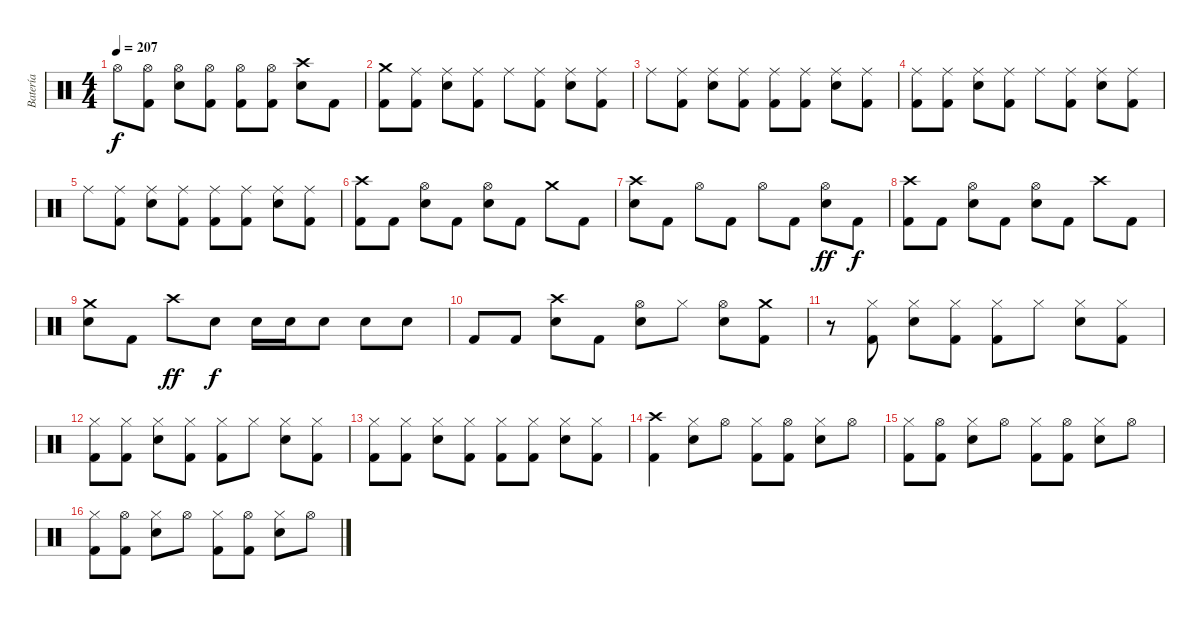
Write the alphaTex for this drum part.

\track ("Batería" "Batería") {instrument percussion}
\staff {score}
\articulation defaults
\ts (4 4)
\tempo 207
\clef neutral
\ks c "Hi-Hat (open)".8{dy f}
("Hi-Hat (open)" "Kick (hit) 2").8 ("Snare (hit) 2" "Hi-Hat (open)").8 ("Hi-Hat (open)" "Kick (hit) 2").8 ("Hi-Hat (open)" "Kick (hit) 2").8 ("Hi-Hat (open)" "Kick (hit) 2").8 ("Crash high (hit)" "Snare (hit) 2").8 "Kick (hit) 2".8 |
("Crash medium (hit)" "Kick (hit) 2").8 ("Ride (middle)" "Kick (hit) 2").8 ("Snare (hit) 2" "Ride (middle)").8 ("Ride (middle)" "Kick (hit) 2").8 "Ride (middle)".8 ("Ride (middle)" "Kick (hit) 2").8 ("Snare (hit) 2" "Ride (middle)").8 ("Ride (middle)" "Kick (hit) 2").8 |
"Ride (middle)".8 ("Ride (middle)" "Kick (hit) 2").8 ("Snare (hit) 2" "Ride (middle)").8 ("Ride (middle)" "Kick (hit) 2").8 ("Ride (middle)" "Kick (hit) 2").8 ("Ride (middle)" "Kick (hit) 2").8 ("Snare (hit) 2" "Ride (middle)").8 ("Ride (middle)" "Kick (hit) 2").8 |
("Ride (middle)" "Kick (hit) 2").8 ("Ride (middle)" "Kick (hit) 2").8 ("Snare (hit) 2" "Ride (middle)").8 ("Ride (middle)" "Kick (hit) 2").8 "Ride (middle)".8 ("Ride (middle)" "Kick (hit) 2").8 ("Snare (hit) 2" "Ride (middle)").8 ("Ride (middle)" "Kick (hit) 2").8 |
"Ride (middle)".8 ("Ride (middle)" "Kick (hit) 2").8 ("Snare (hit) 2" "Ride (middle)").8 ("Ride (middle)" "Kick (hit) 2").8 ("Ride (middle)" "Kick (hit) 2").8 ("Ride (middle)" "Kick (hit) 2").8 ("Snare (hit) 2" "Ride (middle)").8 ("Ride (middle)" "Kick (hit) 2").8 |
("Crash high (hit)" "Kick (hit) 2").8 "Kick (hit) 2".8 ("Snare (hit) 2" "Hi-Hat (open)").8 "Kick (hit) 2".8 ("Snare (hit) 2" "Hi-Hat (open)").8 "Kick (hit) 2".8 "Crash medium (hit)".8 "Kick (hit) 2".8 |
("Crash high (hit)" "Snare (hit) 2").8 "Kick (hit) 2".8 "Hi-Hat (open)".8 "Kick (hit) 2".8 "Hi-Hat (open)".8 "Kick (hit) 2".8 ("Snare (hit) 2" "Hi-Hat (open)").8{dy ff} "Kick (hit) 2".8{dy f} |
("Crash high (hit)" "Kick (hit) 2").8 "Kick (hit) 2".8 ("Snare (hit) 2" "Hi-Hat (open)").8 "Kick (hit) 2".8 ("Snare (hit) 2" "Hi-Hat (open)").8 "Kick (hit) 2".8 "Crash high (hit)".8 "Kick (hit) 2".8 |
("Crash medium (hit)" "Snare (hit) 2").8 "Kick (hit) 2".8 "Crash high (hit)".8{dy ff} "Snare (hit) 2".8{dy f} "Snare (hit) 2".16 "Snare (hit) 2".16 "Snare (hit) 2".8 "Snare (hit) 2".8 "Snare (hit) 2".8 |
"Kick (hit) 2".8 "Kick (hit) 2".8 ("Crash high (hit)" "Snare (hit) 2").8 "Kick (hit) 2".8 ("Snare (hit) 2" "Hi-Hat (open)").8 "Hi-Hat (closed)".8 ("Snare (hit) 2" "Hi-Hat (open)").8 ("Crash medium (hit)" "Kick (hit) 2").8 |
r.8 ("Hi-Hat (closed)" "Kick (hit) 2").8 ("Snare (hit) 2" "Hi-Hat (closed)").8 ("Hi-Hat (closed)" "Kick (hit) 2").8 ("Hi-Hat (closed)" "Kick (hit) 2").8 "Hi-Hat (closed)".8 ("Snare (hit) 2" "Hi-Hat (closed)").8 ("Hi-Hat (closed)" "Kick (hit) 2").8 |
("Hi-Hat (closed)" "Kick (hit) 2").8 ("Hi-Hat (closed)" "Kick (hit) 2").8 ("Snare (hit) 2" "Hi-Hat (closed)").8 ("Hi-Hat (closed)" "Kick (hit) 2").8 ("Hi-Hat (closed)" "Kick (hit) 2").8 "Hi-Hat (closed)".8 ("Snare (hit) 2" "Hi-Hat (closed)").8 ("Hi-Hat (closed)" "Kick (hit) 2").8 |
("Hi-Hat (closed)" "Kick (hit) 2").8 ("Hi-Hat (closed)" "Kick (hit) 2").8 ("Snare (hit) 2" "Hi-Hat (closed)").8 ("Hi-Hat (closed)" "Kick (hit) 2").8 ("Hi-Hat (closed)" "Kick (hit) 2").8 ("Hi-Hat (closed)" "Kick (hit) 2").8 ("Snare (hit) 2" "Hi-Hat (closed)").8 ("Hi-Hat (closed)" "Kick (hit) 2").8 |
("Crash high (hit)" "Kick (hit) 2").4 ("Snare (hit) 2" "Hi-Hat (closed)").8 "Hi-Hat (open)".8 ("Hi-Hat (closed)" "Kick (hit) 2").8 ("Hi-Hat (open)" "Kick (hit) 2").8 ("Snare (hit) 2" "Hi-Hat (closed)").8 "Hi-Hat (open)".8 |
("Hi-Hat (closed)" "Kick (hit) 2").8 ("Hi-Hat (open)" "Kick (hit) 2").8 ("Snare (hit) 2" "Hi-Hat (closed)").8 "Hi-Hat (open)".8 ("Hi-Hat (closed)" "Kick (hit) 2").8 ("Hi-Hat (open)" "Kick (hit) 2").8 ("Snare (hit) 2" "Hi-Hat (closed)").8 "Hi-Hat (open)".8 |
("Hi-Hat (closed)" "Kick (hit) 2").8 ("Hi-Hat (open)" "Kick (hit) 2").8 ("Snare (hit) 2" "Hi-Hat (closed)").8 "Hi-Hat (open)".8 ("Hi-Hat (closed)" "Kick (hit) 2").8 ("Hi-Hat (open)" "Kick (hit) 2").8 ("Snare (hit) 2" "Hi-Hat (closed)").8 "Hi-Hat (open)".8
